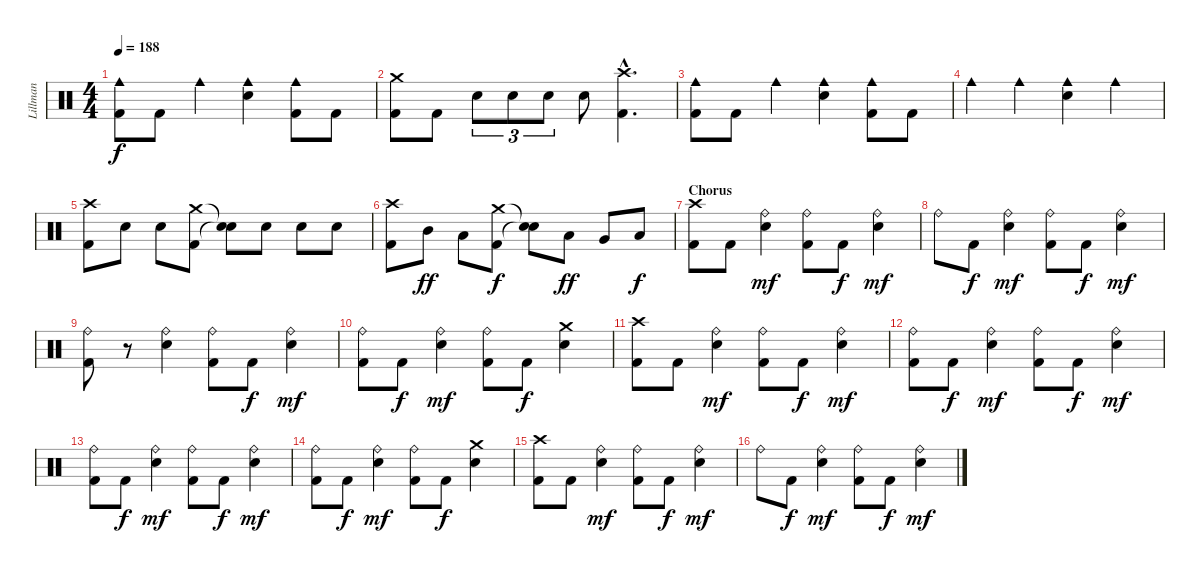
\track ("Lillman" "Lillman") {instrument percussion}
\staff {score}
\articulation defaults
\ts (4 4)
\tempo 188
\clef neutral
\ks c
("Cowbell medium (hit)" "Kick (hit) 2").8{dy f} "Kick (hit) 2".8 "Cowbell medium (hit)".4 ("Cowbell medium (hit)" "Snare (hit) 2").4 ("Cowbell medium (hit)" "Kick (hit) 2").8 "Kick (hit) 2".8 |
("Crash medium (hit)" "Kick (hit) 2").8 "Kick (hit) 2".8 "Snare (hit) 2".8{tu (3 2)} "Snare (hit) 2".8{tu (3 2)} "Snare (hit) 2".8{tu (3 2)} "Snare (hit) 2".8 ("Crash high (hit)"{hac} "Kick (hit) 2"{hac}).4{d} |
("Cowbell medium (hit)" "Kick (hit) 2").8 "Kick (hit) 2".8 "Cowbell medium (hit)".4 ("Cowbell medium (hit)" "Snare (hit) 2").4 ("Cowbell medium (hit)" "Kick (hit) 2").8 "Kick (hit) 2".8 |
"Cowbell medium (hit)".4 "Cowbell medium (hit)".4 ("Cowbell medium (hit)" "Snare (hit) 2").4 "Cowbell medium (hit)".4 |
("Crash high (hit)" "Kick (hit) 2").8 "Snare (hit) 2".8 "Snare (hit) 2".8 ("Crash medium (hit)" "Kick (hit) 2").8 ("Snare (hit)"{t} "Snare (hit)"{t}).8 "Snare (hit) 2".8 "Snare (hit) 2".8 "Snare (hit) 2".8 |
("Crash high (hit)" "Kick (hit) 2").8 "Mid Tom (hit)".8{dy ff} "Low Tom (hit)".8 ("Crash medium (hit)" "Kick (hit) 2").8{dy f} ("Snare (hit)"{t} "Snare (hit)"{t}).8 "Low Tom (hit)".8{dy ff} "Very Low Tom (hit)".8 "Low Floor Tom (hit)".8{dy f} |
\section ("" "Chorus")
("Crash high (hit)" "Kick (hit) 2").8 "Kick (hit) 2".8 ("Ride (bell)" "Snare (hit) 2").4{dy mf} ("Ride (bell)" "Kick (hit) 2").8 "Kick (hit) 2".8{dy f} ("Ride (bell)" "Snare (hit) 2").4{dy mf} |
"Ride (bell)".8 "Kick (hit) 2".8{dy f} ("Ride (bell)" "Snare (hit) 2").4{dy mf} ("Ride (bell)" "Kick (hit) 2").8 "Kick (hit) 2".8{dy f} ("Ride (bell)" "Snare (hit) 2").4{dy mf} |
("Ride (bell)" "Kick (hit) 2").8 r.8 ("Ride (bell)" "Snare (hit) 2").4 ("Ride (bell)" "Kick (hit) 2").8 "Kick (hit) 2".8{dy f} ("Ride (bell)" "Snare (hit) 2").4{dy mf} |
("Ride (bell)" "Kick (hit) 2").8 "Kick (hit) 2".8{dy f} ("Ride (bell)" "Snare (hit) 2").4{dy mf} ("Ride (bell)" "Kick (hit) 2").8 "Kick (hit) 2".8{dy f} ("Crash medium (hit)" "Snare (hit) 2").4 |
("Crash high (hit)" "Kick (hit) 2").8 "Kick (hit) 2".8 ("Ride (bell)" "Snare (hit) 2").4{dy mf} ("Ride (bell)" "Kick (hit) 2").8 "Kick (hit) 2".8{dy f} ("Ride (bell)" "Snare (hit) 2").4{dy mf} |
("Ride (bell)" "Kick (hit) 2").8 "Kick (hit) 2".8{dy f} ("Ride (bell)" "Snare (hit) 2").4{dy mf} ("Ride (bell)" "Kick (hit) 2").8 "Kick (hit) 2".8{dy f} ("Ride (bell)" "Snare (hit) 2").4{dy mf} |
("Ride (bell)" "Kick (hit) 2").8 "Kick (hit) 2".8{dy f} ("Ride (bell)" "Snare (hit) 2").4{dy mf} ("Ride (bell)" "Kick (hit) 2").8 "Kick (hit) 2".8{dy f} ("Ride (bell)" "Snare (hit) 2").4{dy mf} |
("Ride (bell)" "Kick (hit) 2").8 "Kick (hit) 2".8{dy f} ("Ride (bell)" "Snare (hit) 2").4{dy mf} ("Ride (bell)" "Kick (hit) 2").8 "Kick (hit) 2".8{dy f} ("Crash medium (hit)" "Snare (hit) 2").4 |
("Crash high (hit)" "Kick (hit) 2").8 "Kick (hit) 2".8 ("Ride (bell)" "Snare (hit) 2").4{dy mf} ("Ride (bell)" "Kick (hit) 2").8 "Kick (hit) 2".8{dy f} ("Ride (bell)" "Snare (hit) 2").4{dy mf} |
"Ride (bell)".8 "Kick (hit) 2".8{dy f} ("Ride (bell)" "Snare (hit) 2").4{dy mf} ("Ride (bell)" "Kick (hit) 2").8 "Kick (hit) 2".8{dy f} ("Ride (bell)" "Snare (hit) 2").4{dy mf}
